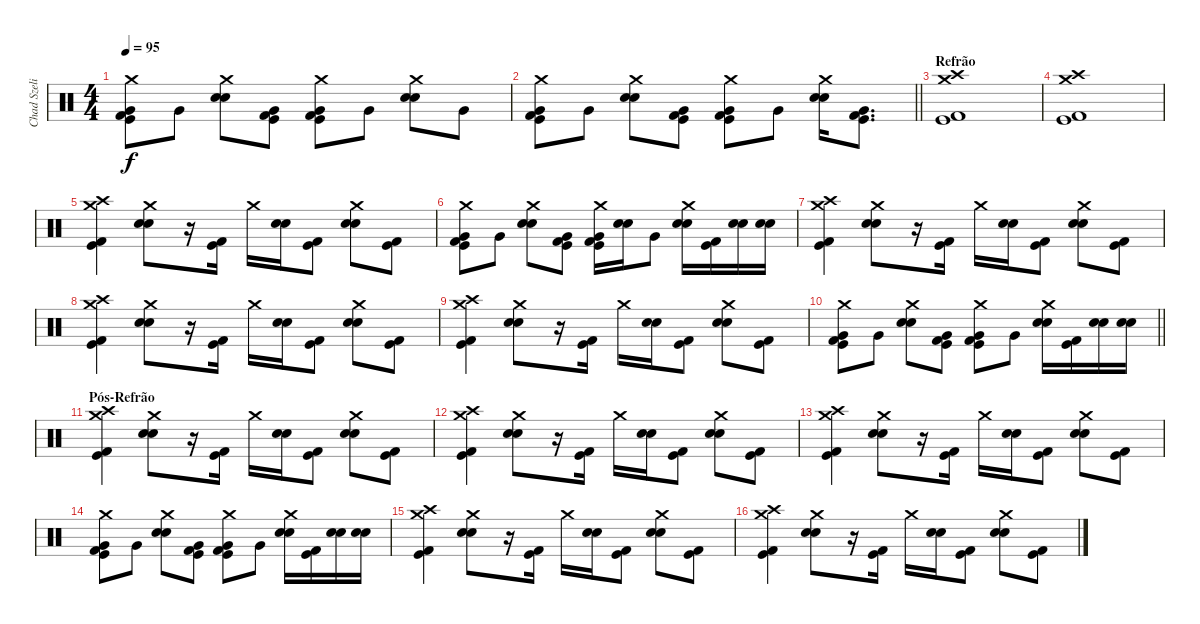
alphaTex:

\track ("Chad Szeliga" "Chad Szeli") {instrument percussion}
\staff {score}
\articulation defaults
\ts (4 4)
\tempo 95
\clef neutral
\ks c
("Crash medium (hit)" "Kick (hit) 2" "Kick (hit)" "Very Low Tom (hit)").8{dy f} "Very Low Tom (hit)".8 ("Crash medium (hit)" "Snare (hit) 2" "Snare (hit) 2").8 ("Kick (hit) 2" "Kick (hit)" "Very Low Tom (hit)").8 ("Crash medium (hit)" "Kick (hit) 2" "Kick (hit)" "Very Low Tom (hit)").8 "Very Low Tom (hit)".8 ("Crash medium (hit)" "Snare (hit) 2" "Snare (hit) 2").8 "Very Low Tom (hit)".8 |
\barLineRight lightlight
("Crash medium (hit)" "Kick (hit) 2" "Kick (hit)" "Very Low Tom (hit)").8 "Very Low Tom (hit)".8 ("Crash medium (hit)" "Snare (hit) 2" "Snare (hit) 2").8 ("Kick (hit) 2" "Kick (hit)" "Very Low Tom (hit)").8 ("Crash medium (hit)" "Kick (hit) 2" "Kick (hit)" "Very Low Tom (hit)").8 "Very Low Tom (hit)".8 ("Crash medium (hit)" "Snare (hit) 2" "Snare (hit) 2").16 ("Kick (hit) 2" "Kick (hit)" "Very Low Tom (hit)").8{d} |
\section ("" "Refrão")
("Crash high (hit)" "Kick (hit) 2" "Kick (hit)" "Crash medium (hit)").1 |
("Crash high (hit)" "Kick (hit) 2" "Kick (hit)" "Crash medium (hit)").1 |
("Crash high (hit)" "Kick (hit) 2" "Kick (hit)" "Crash medium (hit)").4 ("Crash medium (hit)" "Snare (hit) 2" "Snare (hit) 2").8 r.16 ("Kick (hit) 2" "Kick (hit)").16{beam Down} "Crash medium (hit)".16 ("Snare (hit) 2" "Snare (hit) 2").16 ("Kick (hit) 2" "Kick (hit)").8 ("Crash medium (hit)" "Snare (hit) 2" "Snare (hit) 2").8 ("Kick (hit) 2" "Kick (hit)").8 |
("Crash medium (hit)" "Kick (hit) 2" "Kick (hit)" "Very Low Tom (hit)").8 "Very Low Tom (hit)".8 ("Crash medium (hit)" "Snare (hit) 2" "Snare (hit) 2").8 ("Kick (hit) 2" "Kick (hit)" "Very Low Tom (hit)").8 ("Crash medium (hit)" "Kick (hit) 2" "Kick (hit)" "Very Low Tom (hit)").16 ("Snare (hit) 2" "Snare (hit) 2").16 "Very Low Tom (hit)".8 ("Crash medium (hit)" "Snare (hit) 2" "Snare (hit) 2").16 ("Kick (hit) 2" "Kick (hit)").16 ("Snare (hit) 2" "Snare (hit) 2").16 ("Snare (hit) 2" "Snare (hit) 2").16 |
("Crash high (hit)" "Kick (hit) 2" "Kick (hit)" "Crash medium (hit)").4 ("Crash medium (hit)" "Snare (hit) 2" "Snare (hit) 2").8 r.16 ("Kick (hit) 2" "Kick (hit)").16{beam Down} "Crash medium (hit)".16 ("Snare (hit) 2" "Snare (hit) 2").16 ("Kick (hit) 2" "Kick (hit)").8 ("Crash medium (hit)" "Snare (hit) 2" "Snare (hit) 2").8 ("Kick (hit) 2" "Kick (hit)").8 |
("Crash high (hit)" "Kick (hit) 2" "Kick (hit)" "Crash medium (hit)").4 ("Crash medium (hit)" "Snare (hit) 2" "Snare (hit) 2").8 r.16 ("Kick (hit) 2" "Kick (hit)").16{beam Down} "Crash medium (hit)".16 ("Snare (hit) 2" "Snare (hit) 2").16 ("Kick (hit) 2" "Kick (hit)").8 ("Crash medium (hit)" "Snare (hit) 2" "Snare (hit) 2").8 ("Kick (hit) 2" "Kick (hit)").8 |
("Crash high (hit)" "Kick (hit) 2" "Kick (hit)" "Crash medium (hit)").4 ("Crash medium (hit)" "Snare (hit) 2" "Snare (hit) 2").8 r.16 ("Kick (hit) 2" "Kick (hit)").16{beam Down} "Crash medium (hit)".16 ("Snare (hit) 2" "Snare (hit) 2").16 ("Kick (hit) 2" "Kick (hit)").8 ("Crash medium (hit)" "Snare (hit) 2" "Snare (hit) 2").8 ("Kick (hit) 2" "Kick (hit)").8 |
\barLineRight lightlight
("Crash medium (hit)" "Kick (hit) 2" "Kick (hit)" "Very Low Tom (hit)").8 "Very Low Tom (hit)".8 ("Crash medium (hit)" "Snare (hit) 2" "Snare (hit) 2").8 ("Kick (hit) 2" "Kick (hit)" "Very Low Tom (hit)").8 ("Crash medium (hit)" "Kick (hit) 2" "Kick (hit)" "Very Low Tom (hit)").8 "Very Low Tom (hit)".8 ("Crash medium (hit)" "Snare (hit) 2" "Snare (hit) 2").16 ("Kick (hit) 2" "Kick (hit)").16 ("Snare (hit) 2" "Snare (hit) 2").16 ("Snare (hit) 2" "Snare (hit) 2").16 |
\section ("" "Pós-Refrão")
("Crash high (hit)" "Kick (hit) 2" "Kick (hit)" "Crash medium (hit)").4 ("Crash medium (hit)" "Snare (hit) 2" "Snare (hit) 2").8 r.16 ("Kick (hit) 2" "Kick (hit)").16{beam Down} "Crash medium (hit)".16 ("Snare (hit) 2" "Snare (hit) 2").16 ("Kick (hit) 2" "Kick (hit)").8 ("Crash medium (hit)" "Snare (hit) 2" "Snare (hit) 2").8 ("Kick (hit) 2" "Kick (hit)").8 |
("Crash high (hit)" "Kick (hit) 2" "Kick (hit)" "Crash medium (hit)").4 ("Crash medium (hit)" "Snare (hit) 2" "Snare (hit) 2").8 r.16 ("Kick (hit) 2" "Kick (hit)").16{beam Down} "Crash medium (hit)".16 ("Snare (hit) 2" "Snare (hit) 2").16 ("Kick (hit) 2" "Kick (hit)").8 ("Crash medium (hit)" "Snare (hit) 2" "Snare (hit) 2").8 ("Kick (hit) 2" "Kick (hit)").8 |
("Crash high (hit)" "Kick (hit) 2" "Kick (hit)" "Crash medium (hit)").4 ("Crash medium (hit)" "Snare (hit) 2" "Snare (hit) 2").8 r.16 ("Kick (hit) 2" "Kick (hit)").16{beam Down} "Crash medium (hit)".16 ("Snare (hit) 2" "Snare (hit) 2").16 ("Kick (hit) 2" "Kick (hit)").8 ("Crash medium (hit)" "Snare (hit) 2" "Snare (hit) 2").8 ("Kick (hit) 2" "Kick (hit)").8 |
("Crash medium (hit)" "Kick (hit) 2" "Kick (hit)" "Very Low Tom (hit)").8 "Very Low Tom (hit)".8 ("Crash medium (hit)" "Snare (hit) 2" "Snare (hit) 2").8 ("Kick (hit) 2" "Kick (hit)" "Very Low Tom (hit)").8 ("Crash medium (hit)" "Kick (hit) 2" "Kick (hit)" "Very Low Tom (hit)").8 "Very Low Tom (hit)".8 ("Crash medium (hit)" "Snare (hit) 2" "Snare (hit) 2").16 ("Kick (hit) 2" "Kick (hit)").16 ("Snare (hit) 2" "Snare (hit) 2").16 ("Snare (hit) 2" "Snare (hit) 2").16 |
("Crash high (hit)" "Kick (hit) 2" "Kick (hit)" "Crash medium (hit)").4 ("Crash medium (hit)" "Snare (hit) 2" "Snare (hit) 2").8 r.16 ("Kick (hit) 2" "Kick (hit)").16{beam Down} "Crash medium (hit)".16 ("Snare (hit) 2" "Snare (hit) 2").16 ("Kick (hit) 2" "Kick (hit)").8 ("Crash medium (hit)" "Snare (hit) 2" "Snare (hit) 2").8 ("Kick (hit) 2" "Kick (hit)").8 |
("Crash high (hit)" "Kick (hit) 2" "Kick (hit)" "Crash medium (hit)").4 ("Crash medium (hit)" "Snare (hit) 2" "Snare (hit) 2").8 r.16 ("Kick (hit) 2" "Kick (hit)").16{beam Down} "Crash medium (hit)".16 ("Snare (hit) 2" "Snare (hit) 2").16 ("Kick (hit) 2" "Kick (hit)").8 ("Crash medium (hit)" "Snare (hit) 2" "Snare (hit) 2").8 ("Kick (hit) 2" "Kick (hit)").8
